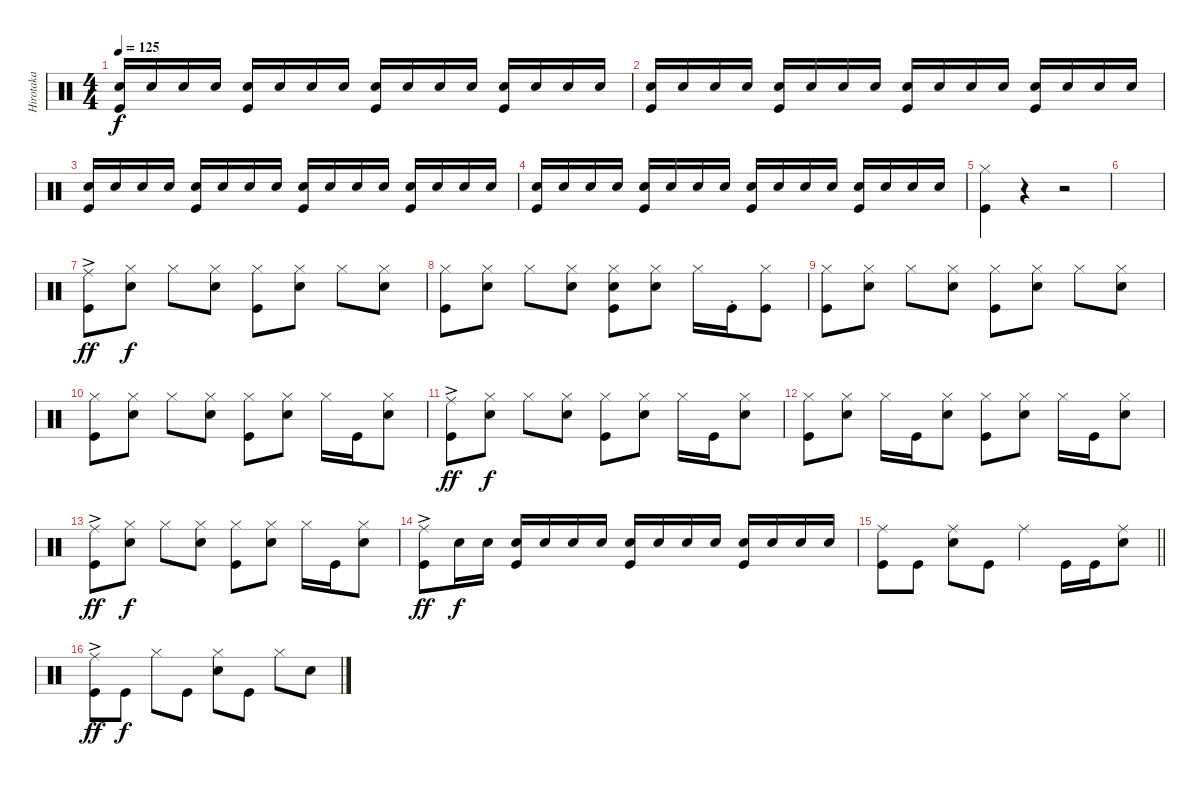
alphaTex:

\track ("Hirotaka" "Hirotaka") {instrument percussion}
\staff {score}
\articulation defaults
\ts (4 4)
\tempo 125
\clef neutral
\ks c
("Snare (hit) 2" "Kick (hit)").16{dy f} "Snare (hit) 2".16 "Snare (hit) 2".16 "Snare (hit) 2".16 ("Snare (hit) 2" "Kick (hit)").16 "Snare (hit) 2".16 "Snare (hit) 2".16 "Snare (hit) 2".16 ("Snare (hit) 2" "Kick (hit)").16 "Snare (hit) 2".16 "Snare (hit) 2".16 "Snare (hit) 2".16 ("Snare (hit) 2" "Kick (hit)").16 "Snare (hit) 2".16 "Snare (hit) 2".16 "Snare (hit) 2".16 |
("Snare (hit) 2" "Kick (hit)").16 "Snare (hit) 2".16 "Snare (hit) 2".16 "Snare (hit) 2".16 ("Snare (hit) 2" "Kick (hit)").16 "Snare (hit) 2".16 "Snare (hit) 2".16 "Snare (hit) 2".16 ("Snare (hit) 2" "Kick (hit)").16 "Snare (hit) 2".16 "Snare (hit) 2".16 "Snare (hit) 2".16 ("Snare (hit) 2" "Kick (hit)").16 "Snare (hit) 2".16 "Snare (hit) 2".16 "Snare (hit) 2".16 |
("Snare (hit) 2" "Kick (hit)").16 "Snare (hit) 2".16 "Snare (hit) 2".16 "Snare (hit) 2".16 ("Snare (hit) 2" "Kick (hit)").16 "Snare (hit) 2".16 "Snare (hit) 2".16 "Snare (hit) 2".16 ("Snare (hit) 2" "Kick (hit)").16 "Snare (hit) 2".16 "Snare (hit) 2".16 "Snare (hit) 2".16 ("Snare (hit) 2" "Kick (hit)").16 "Snare (hit) 2".16 "Snare (hit) 2".16 "Snare (hit) 2".16 |
("Snare (hit) 2" "Kick (hit)").16 "Snare (hit) 2".16 "Snare (hit) 2".16 "Snare (hit) 2".16 ("Snare (hit) 2" "Kick (hit)").16 "Snare (hit) 2".16 "Snare (hit) 2".16 "Snare (hit) 2".16 ("Snare (hit) 2" "Kick (hit)").16 "Snare (hit) 2".16 "Snare (hit) 2".16 "Snare (hit) 2".16 ("Snare (hit) 2" "Kick (hit)").16 "Snare (hit) 2".16 "Snare (hit) 2".16 "Snare (hit) 2".16 |
("Hi-Hat (closed)" "Kick (hit)").4 r.4 r.2 |
|
("Ride (middle)"{ac} "Kick (hit)").8{dy ff} ("Hi-Hat (closed)" "Snare (hit) 2").8{dy f} "Hi-Hat (closed)".8 ("Hi-Hat (closed)" "Snare (hit) 2").8 ("Hi-Hat (closed)" "Kick (hit)").8 ("Hi-Hat (closed)" "Snare (hit) 2").8 "Hi-Hat (closed)".8 ("Hi-Hat (closed)" "Snare (hit) 2").8 |
("Hi-Hat (closed)" "Kick (hit)").8 ("Hi-Hat (closed)" "Snare (hit) 2").8 "Hi-Hat (closed)".8 ("Hi-Hat (closed)" "Snare (hit) 2").8 ("Hi-Hat (closed)" "Snare (hit) 2" "Kick (hit)").8 ("Hi-Hat (closed)" "Snare (hit) 2").8 "Hi-Hat (closed)".16 "Kick (hit)"{st}.16 ("Hi-Hat (closed)" "Kick (hit)").8 |
("Hi-Hat (closed)" "Kick (hit)").8 ("Hi-Hat (closed)" "Snare (hit) 2").8 "Hi-Hat (closed)".8 ("Hi-Hat (closed)" "Snare (hit) 2").8 ("Hi-Hat (closed)" "Kick (hit)").8 ("Hi-Hat (closed)" "Snare (hit) 2").8 "Hi-Hat (closed)".8 ("Hi-Hat (closed)" "Snare (hit) 2").8 |
("Hi-Hat (closed)" "Kick (hit)").8 ("Hi-Hat (closed)" "Snare (hit) 2").8 "Hi-Hat (closed)".8 ("Hi-Hat (closed)" "Snare (hit) 2").8 ("Hi-Hat (closed)" "Kick (hit)").8 ("Hi-Hat (closed)" "Snare (hit) 2").8 "Hi-Hat (closed)".16 "Kick (hit)".16 ("Hi-Hat (closed)" "Snare (hit) 2").8 |
("Ride (middle)"{ac} "Kick (hit)").8{dy ff} ("Hi-Hat (closed)" "Snare (hit) 2").8{dy f} "Hi-Hat (closed)".8 ("Hi-Hat (closed)" "Snare (hit) 2").8 ("Hi-Hat (closed)" "Kick (hit)").8 ("Hi-Hat (closed)" "Snare (hit) 2").8 "Hi-Hat (closed)".16 "Kick (hit)".16 ("Hi-Hat (closed)" "Snare (hit) 2").8 |
("Hi-Hat (closed)" "Kick (hit)").8 ("Hi-Hat (closed)" "Snare (hit) 2").8 "Hi-Hat (closed)".16 "Kick (hit)".16 ("Hi-Hat (closed)" "Snare (hit) 2").8 ("Hi-Hat (closed)" "Kick (hit)").8 ("Hi-Hat (closed)" "Snare (hit) 2").8 "Hi-Hat (closed)".16 "Kick (hit)".16 ("Hi-Hat (closed)" "Snare (hit) 2").8 |
("Ride (middle)"{ac} "Kick (hit)").8{dy ff} ("Hi-Hat (closed)" "Snare (hit) 2").8{dy f} "Hi-Hat (closed)".8 ("Hi-Hat (closed)" "Snare (hit) 2").8 ("Hi-Hat (closed)" "Kick (hit)").8 ("Hi-Hat (closed)" "Snare (hit) 2").8 "Hi-Hat (closed)".16 "Kick (hit)".16 ("Hi-Hat (closed)" "Snare (hit) 2").8 |
("Ride (middle)"{ac} "Kick (hit)").8{dy ff} "Snare (hit) 2".16{dy f} "Snare (hit) 2".16 ("Snare (hit) 2" "Kick (hit)").16 "Snare (hit) 2".16 "Snare (hit) 2".16 "Snare (hit) 2".16 ("Snare (hit) 2" "Kick (hit)").16 "Snare (hit) 2".16 "Snare (hit) 2".16 "Snare (hit) 2".16 ("Snare (hit) 2" "Kick (hit)").16 "Snare (hit) 2".16 "Snare (hit) 2".16 "Snare (hit) 2".16 |
\barLineRight lightlight
("Ride (middle)" "Kick (hit)").8 "Kick (hit)".8 ("Ride (middle)" "Snare (hit) 2").8 "Kick (hit)".8 "Ride (middle)".4 "Kick (hit)".16 "Kick (hit)".16 ("Ride (middle)" "Snare (hit) 2").8 |
("Ride (middle)"{ac} "Kick (hit)").8{dy ff} "Kick (hit)".8{dy f} "Hi-Hat (closed)".8 "Kick (hit)".8 ("Hi-Hat (closed)" "Snare (hit) 2").8 "Kick (hit)".8 "Hi-Hat (closed)".8 "Snare (hit) 2".8
